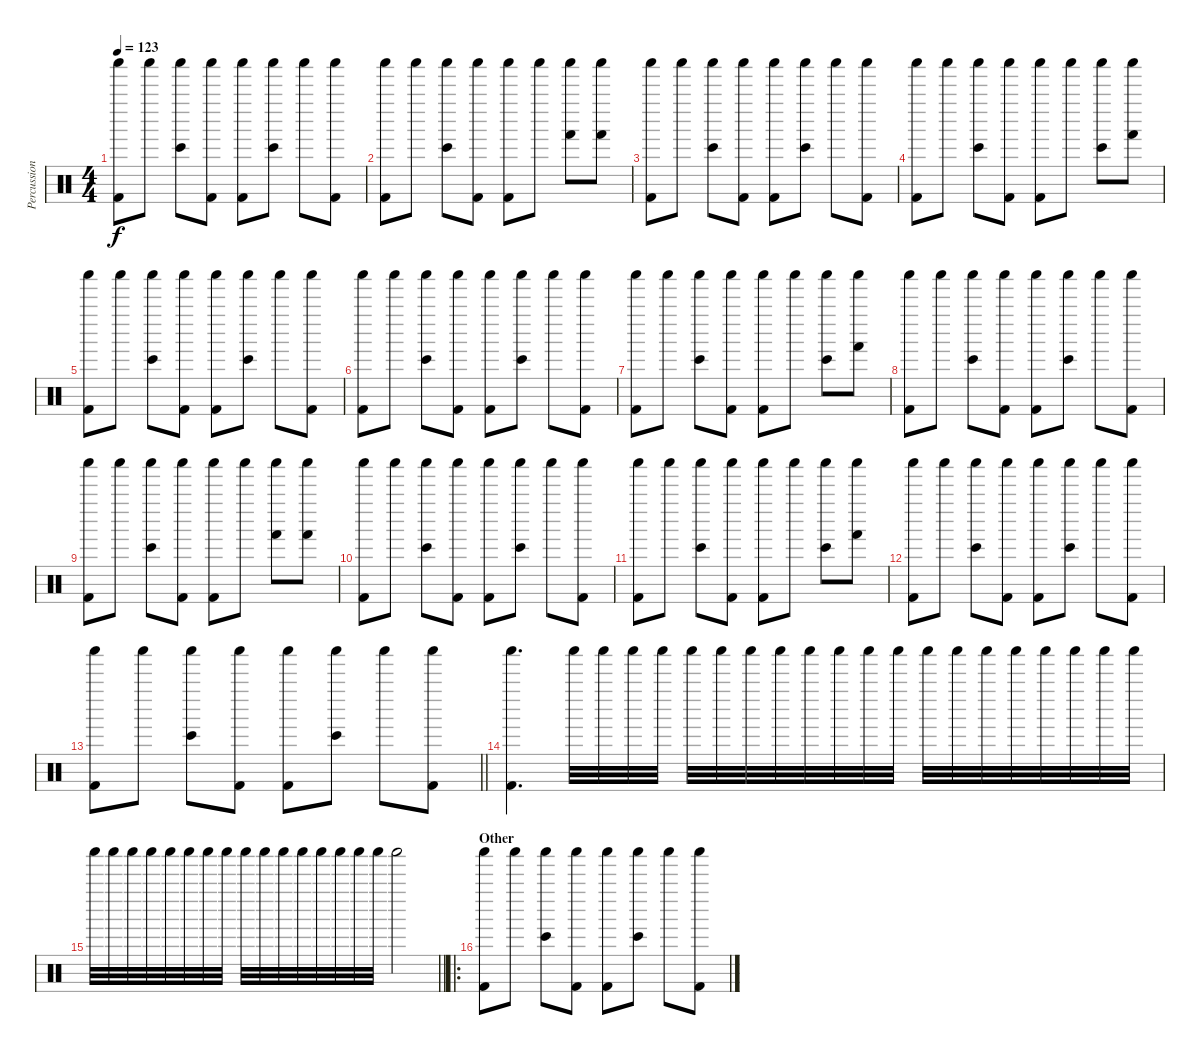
\track ("Percussion" "Percussion") {instrument percussion}
\staff {score}
\articulation defaults
\ts (4 4)
\tempo 123
\clef neutral
\ks c
("Shaker (hit)" "Kick (hit) 2").8{dy f} "Shaker (hit)".8 ("Shaker (hit)" "Bongo High (hit)").8 ("Shaker (hit)" "Kick (hit) 2").8 ("Shaker (hit)" "Kick (hit) 2").8 ("Shaker (hit)" "Bongo High (hit)").8 "Shaker (hit)".8 ("Shaker (hit)" "Kick (hit) 2").8 |
("Shaker (hit)" "Kick (hit) 2").8 "Shaker (hit)".8 ("Shaker (hit)" "Bongo High (hit)").8 ("Shaker (hit)" "Kick (hit) 2").8 ("Shaker (hit)" "Kick (hit) 2").8 "Shaker (hit)".8 ("Shaker (hit)" "Hand (hit)").8 ("Shaker (hit)" "Hand (hit)").8 |
("Shaker (hit)" "Kick (hit) 2").8 "Shaker (hit)".8 ("Shaker (hit)" "Bongo High (hit)").8 ("Shaker (hit)" "Kick (hit) 2").8 ("Shaker (hit)" "Kick (hit) 2").8 ("Shaker (hit)" "Bongo High (hit)").8 "Shaker (hit)".8 ("Shaker (hit)" "Kick (hit) 2").8 |
("Shaker (hit)" "Kick (hit) 2").8 "Shaker (hit)".8 ("Shaker (hit)" "Bongo High (hit)").8 ("Shaker (hit)" "Kick (hit) 2").8 ("Shaker (hit)" "Kick (hit) 2").8 "Shaker (hit)".8 ("Shaker (hit)" "Bongo High (hit)").8 ("Shaker (hit)" "Hand (hit)").8 |
("Shaker (hit)" "Kick (hit) 2").8 "Shaker (hit)".8 ("Shaker (hit)" "Bongo High (hit)").8 ("Shaker (hit)" "Kick (hit) 2").8 ("Shaker (hit)" "Kick (hit) 2").8 ("Shaker (hit)" "Bongo High (hit)").8 "Shaker (hit)".8 ("Shaker (hit)" "Kick (hit) 2").8 |
("Shaker (hit)" "Kick (hit) 2").8 "Shaker (hit)".8 ("Shaker (hit)" "Bongo High (hit)").8 ("Shaker (hit)" "Kick (hit) 2").8 ("Shaker (hit)" "Kick (hit) 2").8 ("Shaker (hit)" "Bongo High (hit)").8 "Shaker (hit)".8 ("Shaker (hit)" "Kick (hit) 2").8 |
("Shaker (hit)" "Kick (hit) 2").8 "Shaker (hit)".8 ("Shaker (hit)" "Bongo High (hit)").8 ("Shaker (hit)" "Kick (hit) 2").8 ("Shaker (hit)" "Kick (hit) 2").8 "Shaker (hit)".8 ("Shaker (hit)" "Bongo High (hit)").8 ("Shaker (hit)" "Hand (hit)").8 |
("Shaker (hit)" "Kick (hit) 2").8 "Shaker (hit)".8 ("Shaker (hit)" "Bongo High (hit)").8 ("Shaker (hit)" "Kick (hit) 2").8 ("Shaker (hit)" "Kick (hit) 2").8 ("Shaker (hit)" "Bongo High (hit)").8 "Shaker (hit)".8 ("Shaker (hit)" "Kick (hit) 2").8 |
("Shaker (hit)" "Kick (hit) 2").8 "Shaker (hit)".8 ("Shaker (hit)" "Bongo High (hit)").8 ("Shaker (hit)" "Kick (hit) 2").8 ("Shaker (hit)" "Kick (hit) 2").8 "Shaker (hit)".8 ("Shaker (hit)" "Hand (hit)").8 ("Shaker (hit)" "Hand (hit)").8 |
("Shaker (hit)" "Kick (hit) 2").8 "Shaker (hit)".8 ("Shaker (hit)" "Bongo High (hit)").8 ("Shaker (hit)" "Kick (hit) 2").8 ("Shaker (hit)" "Kick (hit) 2").8 ("Shaker (hit)" "Bongo High (hit)").8 "Shaker (hit)".8 ("Shaker (hit)" "Kick (hit) 2").8 |
("Shaker (hit)" "Kick (hit) 2").8 "Shaker (hit)".8 ("Shaker (hit)" "Bongo High (hit)").8 ("Shaker (hit)" "Kick (hit) 2").8 ("Shaker (hit)" "Kick (hit) 2").8 "Shaker (hit)".8 ("Shaker (hit)" "Bongo High (hit)").8 ("Shaker (hit)" "Hand (hit)").8 |
("Shaker (hit)" "Kick (hit) 2").8 "Shaker (hit)".8 ("Shaker (hit)" "Bongo High (hit)").8 ("Shaker (hit)" "Kick (hit) 2").8 ("Shaker (hit)" "Kick (hit) 2").8 ("Shaker (hit)" "Bongo High (hit)").8 "Shaker (hit)".8 ("Shaker (hit)" "Kick (hit) 2").8 |
\barLineRight lightlight
("Shaker (hit)" "Kick (hit) 2").8 "Shaker (hit)".8 ("Shaker (hit)" "Bongo High (hit)").8 ("Shaker (hit)" "Kick (hit) 2").8 ("Shaker (hit)" "Kick (hit) 2").8 ("Shaker (hit)" "Bongo High (hit)").8 "Shaker (hit)".8 ("Shaker (hit)" "Kick (hit) 2").8 |
("Shaker (hit)" "Kick (hit) 2").4{d} "Shaker (hit)".32{balance 1} "Shaker (hit)".32 "Shaker (hit)".32 "Shaker (hit)".32 "Shaker (hit)".32 "Shaker (hit)".32 "Shaker (hit)".32 "Shaker (hit)".32 "Shaker (hit)".32 "Shaker (hit)".32 "Shaker (hit)".32 "Shaker (hit)".32 "Shaker (hit)".32 "Shaker (hit)".32 "Shaker (hit)".32 "Shaker (hit)".32 "Shaker (hit)".32 "Shaker (hit)".32 "Shaker (hit)".32 "Shaker (hit)".32 |
\barLineRight lightlight "Shaker (hit)".32{balance 16} "Shaker (hit)".32 "Shaker (hit)".32 "Shaker (hit)".32 "Shaker (hit)".32 "Shaker (hit)".32 "Shaker (hit)".32 "Shaker (hit)".32 "Shaker (hit)".32 "Shaker (hit)".32 "Shaker (hit)".32 "Shaker (hit)".32 "Shaker (hit)".32 "Shaker (hit)".32 "Shaker (hit)".32 "Shaker (hit)".32 "Shaker (hit)".2
|
\ro
\section ("" "Other")
("Shaker (hit)" "Kick (hit) 2").8{balance 8} "Shaker (hit)".8 ("Shaker (hit)" "Bongo High (hit)").8 ("Shaker (hit)" "Kick (hit) 2").8 ("Shaker (hit)" "Kick (hit) 2").8 ("Shaker (hit)" "Bongo High (hit)").8 "Shaker (hit)".8 ("Shaker (hit)" "Kick (hit) 2").8
